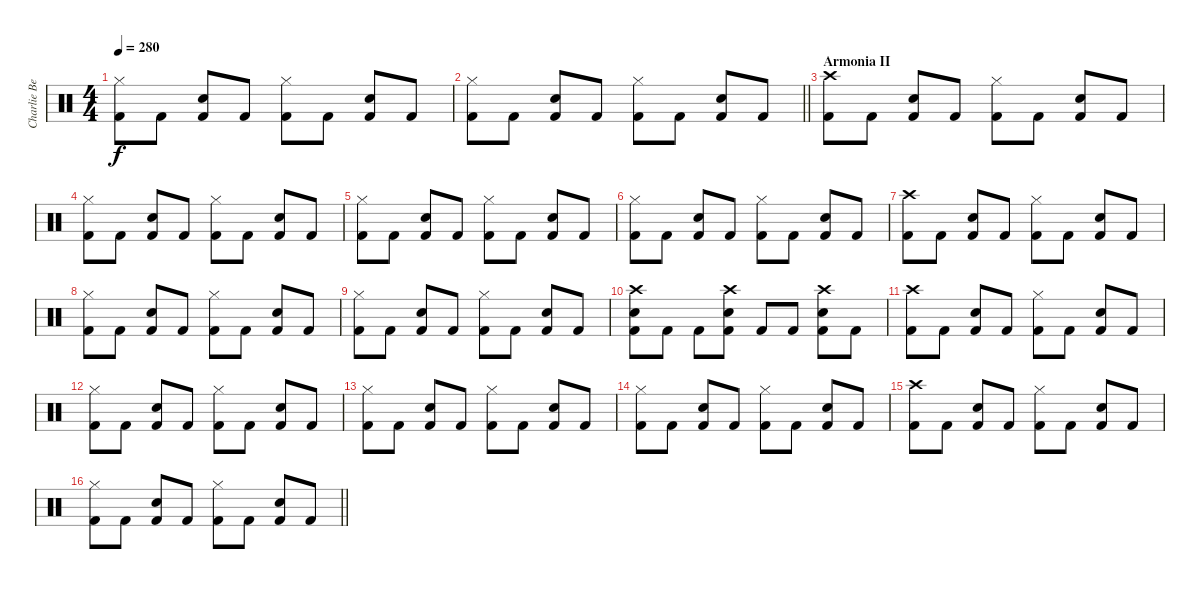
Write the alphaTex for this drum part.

\track ("Charlie Benante" "Charlie Be") {instrument percussion}
\staff {score}
\articulation defaults
\ts (4 4)
\tempo 280
\clef neutral
\ks c
("Hi-Hat (closed)" "Kick (hit) 2").8{dy f} "Kick (hit) 2".8 ("Snare (hit) 2" "Kick (hit) 2").8 "Kick (hit) 2".8 ("Hi-Hat (closed)" "Kick (hit) 2").8 "Kick (hit) 2".8 ("Snare (hit) 2" "Kick (hit) 2").8 "Kick (hit) 2".8 |
\barLineRight lightlight
("Hi-Hat (closed)" "Kick (hit) 2").8 "Kick (hit) 2".8 ("Snare (hit) 2" "Kick (hit) 2").8 "Kick (hit) 2".8 ("Hi-Hat (closed)" "Kick (hit) 2").8 "Kick (hit) 2".8 ("Snare (hit) 2" "Kick (hit) 2").8 "Kick (hit) 2".8 |
\section ("" "Armonia II")
("Crash high (hit)" "Kick (hit) 2").8 "Kick (hit) 2".8 ("Snare (hit) 2" "Kick (hit) 2").8 "Kick (hit) 2".8 ("Hi-Hat (closed)" "Kick (hit) 2").8 "Kick (hit) 2".8 ("Snare (hit) 2" "Kick (hit) 2").8 "Kick (hit) 2".8 |
("Hi-Hat (closed)" "Kick (hit) 2").8 "Kick (hit) 2".8 ("Snare (hit) 2" "Kick (hit) 2").8 "Kick (hit) 2".8 ("Hi-Hat (closed)" "Kick (hit) 2").8 "Kick (hit) 2".8 ("Snare (hit) 2" "Kick (hit) 2").8 "Kick (hit) 2".8 |
("Hi-Hat (closed)" "Kick (hit) 2").8 "Kick (hit) 2".8 ("Snare (hit) 2" "Kick (hit) 2").8 "Kick (hit) 2".8 ("Hi-Hat (closed)" "Kick (hit) 2").8 "Kick (hit) 2".8 ("Snare (hit) 2" "Kick (hit) 2").8 "Kick (hit) 2".8 |
("Hi-Hat (closed)" "Kick (hit) 2").8 "Kick (hit) 2".8 ("Snare (hit) 2" "Kick (hit) 2").8 "Kick (hit) 2".8 ("Hi-Hat (closed)" "Kick (hit) 2").8 "Kick (hit) 2".8 ("Snare (hit) 2" "Kick (hit) 2").8 "Kick (hit) 2".8 |
("Crash high (hit)" "Kick (hit) 2").8 "Kick (hit) 2".8 ("Snare (hit) 2" "Kick (hit) 2").8 "Kick (hit) 2".8 ("Hi-Hat (closed)" "Kick (hit) 2").8 "Kick (hit) 2".8 ("Snare (hit) 2" "Kick (hit) 2").8 "Kick (hit) 2".8 |
("Hi-Hat (closed)" "Kick (hit) 2").8 "Kick (hit) 2".8 ("Snare (hit) 2" "Kick (hit) 2").8 "Kick (hit) 2".8 ("Hi-Hat (closed)" "Kick (hit) 2").8 "Kick (hit) 2".8 ("Snare (hit) 2" "Kick (hit) 2").8 "Kick (hit) 2".8 |
("Hi-Hat (closed)" "Kick (hit) 2").8 "Kick (hit) 2".8 ("Snare (hit) 2" "Kick (hit) 2").8 "Kick (hit) 2".8 ("Hi-Hat (closed)" "Kick (hit) 2").8 "Kick (hit) 2".8 ("Snare (hit) 2" "Kick (hit) 2").8 "Kick (hit) 2".8 |
("Crash high (hit)" "Snare (hit) 2" "Kick (hit) 2").8 "Kick (hit) 2".8 "Kick (hit) 2".8 ("Crash high (hit)" "Snare (hit) 2" "Kick (hit) 2").8 "Kick (hit) 2".8 "Kick (hit) 2".8 ("Crash high (hit)" "Snare (hit) 2" "Kick (hit) 2").8 "Kick (hit) 2".8 |
("Crash high (hit)" "Kick (hit) 2").8 "Kick (hit) 2".8 ("Snare (hit) 2" "Kick (hit) 2").8 "Kick (hit) 2".8 ("Hi-Hat (closed)" "Kick (hit) 2").8 "Kick (hit) 2".8 ("Snare (hit) 2" "Kick (hit) 2").8 "Kick (hit) 2".8 |
("Hi-Hat (closed)" "Kick (hit) 2").8 "Kick (hit) 2".8 ("Snare (hit) 2" "Kick (hit) 2").8 "Kick (hit) 2".8 ("Hi-Hat (closed)" "Kick (hit) 2").8 "Kick (hit) 2".8 ("Snare (hit) 2" "Kick (hit) 2").8 "Kick (hit) 2".8 |
("Hi-Hat (closed)" "Kick (hit) 2").8 "Kick (hit) 2".8 ("Snare (hit) 2" "Kick (hit) 2").8 "Kick (hit) 2".8 ("Hi-Hat (closed)" "Kick (hit) 2").8 "Kick (hit) 2".8 ("Snare (hit) 2" "Kick (hit) 2").8 "Kick (hit) 2".8 |
("Hi-Hat (closed)" "Kick (hit) 2").8 "Kick (hit) 2".8 ("Snare (hit) 2" "Kick (hit) 2").8 "Kick (hit) 2".8 ("Hi-Hat (closed)" "Kick (hit) 2").8 "Kick (hit) 2".8 ("Snare (hit) 2" "Kick (hit) 2").8 "Kick (hit) 2".8 |
("Crash high (hit)" "Kick (hit) 2").8 "Kick (hit) 2".8 ("Snare (hit) 2" "Kick (hit) 2").8 "Kick (hit) 2".8 ("Hi-Hat (closed)" "Kick (hit) 2").8 "Kick (hit) 2".8 ("Snare (hit) 2" "Kick (hit) 2").8 "Kick (hit) 2".8 |
\barLineRight lightlight
("Hi-Hat (closed)" "Kick (hit) 2").8 "Kick (hit) 2".8 ("Snare (hit) 2" "Kick (hit) 2").8 "Kick (hit) 2".8 ("Hi-Hat (closed)" "Kick (hit) 2").8 "Kick (hit) 2".8 ("Snare (hit) 2" "Kick (hit) 2").8 "Kick (hit) 2".8
